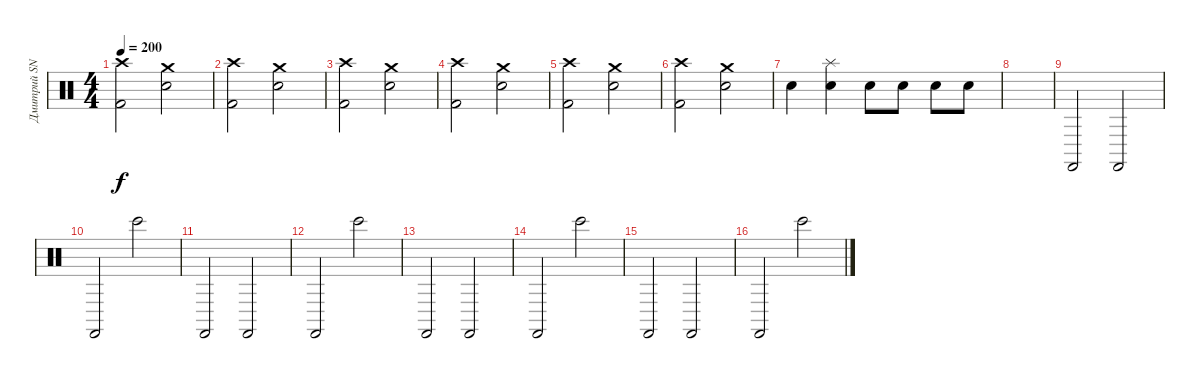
\track ("Дмитрий SNAKE Хакимов" "Дмитрий SN") {instrument percussion}
\staff {score}
\articulation defaults
\ts (4 4)
\tempo 200
\clef neutral
\ks c
("Crash high (hit)" "Kick (hit) 2").2{dy f} ("Crash medium (hit)" "Snare (hit) 2").2 |
("Crash high (hit)" "Kick (hit) 2").2 ("Crash medium (hit)" "Snare (hit) 2").2 |
("Crash high (hit)" "Kick (hit) 2").2 ("Crash medium (hit)" "Snare (hit) 2").2 |
("Crash high (hit)" "Kick (hit) 2").2 ("Crash medium (hit)" "Snare (hit) 2").2 |
("Crash high (hit)" "Kick (hit) 2").2 ("Crash medium (hit)" "Snare (hit) 2").2 |
("Crash high (hit)" "Kick (hit) 2").2 ("Crash medium (hit)" "Snare (hit) 2").2 |
"Snare (hit) 2".4 ("Splash (hit)" "Snare (hit) 2").4 "Snare (hit) 2".8 "Snare (hit) 2".8 "Snare (hit) 2".8 "Snare (hit) 2".8 |
|
"Castanets (hit)".2 "Castanets (hit)".2 |
"Castanets (hit)".2 "Bongo High (hit)".2 |
"Castanets (hit)".2 "Castanets (hit)".2 |
"Castanets (hit)".2 "Bongo High (hit)".2 |
"Castanets (hit)".2 "Castanets (hit)".2 |
"Castanets (hit)".2 "Bongo High (hit)".2 |
"Castanets (hit)".2 "Castanets (hit)".2 |
"Castanets (hit)".2 "Bongo High (hit)".2
